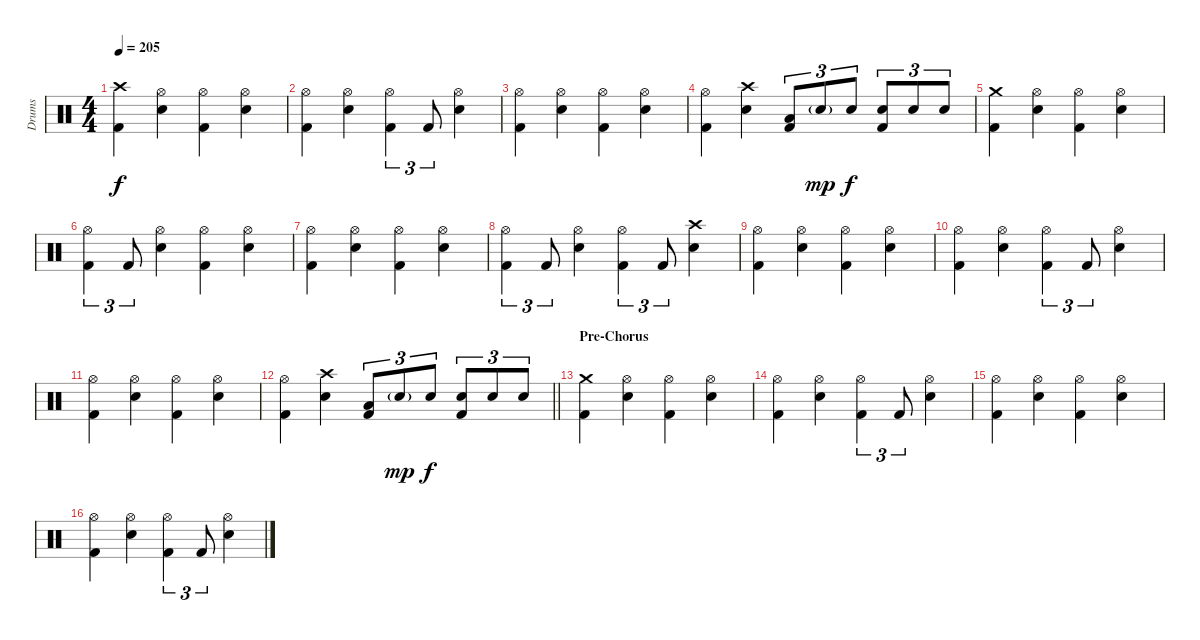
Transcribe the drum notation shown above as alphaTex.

\track ("Drums" "Drums") {instrument percussion}
\staff {score}
\articulation defaults
\ts (4 4)
\tempo 205
\clef neutral
\ks c
("Crash high (hit)" "Kick (hit) 2").4{dy f} ("Hi-Hat (open)" "Electric Snare (hit)").4 ("Hi-Hat (open)" "Kick (hit) 2").4 ("Hi-Hat (open)" "Electric Snare (hit)").4 |
("Hi-Hat (open)" "Kick (hit) 2").4 ("Hi-Hat (open)" "Electric Snare (hit)").4 ("Hi-Hat (open)" "Kick (hit) 2").4{tu (3 2)} "Kick (hit) 2".8{tu (3 2)} ("Hi-Hat (open)" "Electric Snare (hit)").4 |
("Hi-Hat (open)" "Kick (hit) 2").4 ("Hi-Hat (open)" "Electric Snare (hit)").4 ("Hi-Hat (open)" "Kick (hit) 2").4 ("Hi-Hat (open)" "Electric Snare (hit)").4 |
("Hi-Hat (open)" "Kick (hit) 2").4 ("Crash high (hit)" "Electric Snare (hit)").4 ("Low Tom (hit)" "Kick (hit) 2").8{tu (3 2)} "Electric Snare (hit)"{g}.8{tu (3 2) dy mp} "Electric Snare (hit)".8{tu (3 2) dy f} ("Electric Snare (hit)" "Kick (hit) 2").8{tu (3 2)} "Electric Snare (hit)".8{tu (3 2)} "Electric Snare (hit)".8{tu (3 2)} |
("Crash medium (hit)" "Kick (hit) 2").4 ("Hi-Hat (open)" "Electric Snare (hit)").4 ("Hi-Hat (open)" "Kick (hit) 2").4 ("Hi-Hat (open)" "Electric Snare (hit)").4 |
("Hi-Hat (open)" "Kick (hit) 2").4{tu (3 2)} "Kick (hit) 2".8{tu (3 2)} ("Hi-Hat (open)" "Electric Snare (hit)").4 ("Hi-Hat (open)" "Kick (hit) 2").4 ("Hi-Hat (open)" "Electric Snare (hit)").4 |
("Hi-Hat (open)" "Kick (hit) 2").4 ("Hi-Hat (open)" "Electric Snare (hit)").4 ("Hi-Hat (open)" "Kick (hit) 2").4 ("Hi-Hat (open)" "Electric Snare (hit)").4 |
("Hi-Hat (open)" "Kick (hit) 2").4{tu (3 2)} "Kick (hit) 2".8{tu (3 2)} ("Hi-Hat (open)" "Electric Snare (hit)").4 ("Hi-Hat (open)" "Kick (hit) 2").4{tu (3 2)} "Kick (hit) 2".8{tu (3 2)} ("Crash high (hit)" "Electric Snare (hit)").4 |
("Hi-Hat (open)" "Kick (hit) 2").4 ("Hi-Hat (open)" "Electric Snare (hit)").4 ("Hi-Hat (open)" "Kick (hit) 2").4 ("Hi-Hat (open)" "Electric Snare (hit)").4 |
("Hi-Hat (open)" "Kick (hit) 2").4 ("Hi-Hat (open)" "Electric Snare (hit)").4 ("Hi-Hat (open)" "Kick (hit) 2").4{tu (3 2)} "Kick (hit) 2".8{tu (3 2)} ("Hi-Hat (open)" "Electric Snare (hit)").4 |
("Hi-Hat (open)" "Kick (hit) 2").4 ("Hi-Hat (open)" "Electric Snare (hit)").4 ("Hi-Hat (open)" "Kick (hit) 2").4 ("Hi-Hat (open)" "Electric Snare (hit)").4 |
\barLineRight lightlight
("Hi-Hat (open)" "Kick (hit) 2").4 ("Crash high (hit)" "Electric Snare (hit)").4 ("Low Tom (hit)" "Kick (hit) 2").8{tu (3 2)} "Electric Snare (hit)"{g}.8{tu (3 2) dy mp} "Electric Snare (hit)".8{tu (3 2) dy f} ("Electric Snare (hit)" "Kick (hit) 2").8{tu (3 2)} "Electric Snare (hit)".8{tu (3 2)} "Electric Snare (hit)".8{tu (3 2)} |
\section ("" "Pre-Chorus")
("Crash medium (hit)" "Kick (hit) 2").4 ("Hi-Hat (open)" "Electric Snare (hit)").4 ("Hi-Hat (open)" "Kick (hit) 2").4 ("Hi-Hat (open)" "Electric Snare (hit)").4 |
("Hi-Hat (open)" "Kick (hit) 2").4 ("Hi-Hat (open)" "Electric Snare (hit)").4 ("Hi-Hat (open)" "Kick (hit) 2").4{tu (3 2)} "Kick (hit) 2".8{tu (3 2)} ("Hi-Hat (open)" "Electric Snare (hit)").4 |
("Hi-Hat (open)" "Kick (hit) 2").4 ("Hi-Hat (open)" "Electric Snare (hit)").4 ("Hi-Hat (open)" "Kick (hit) 2").4 ("Hi-Hat (open)" "Electric Snare (hit)").4 |
("Hi-Hat (open)" "Kick (hit) 2").4 ("Hi-Hat (open)" "Electric Snare (hit)").4 ("Hi-Hat (open)" "Kick (hit) 2").4{tu (3 2)} "Kick (hit) 2".8{tu (3 2)} ("Hi-Hat (open)" "Electric Snare (hit)").4
